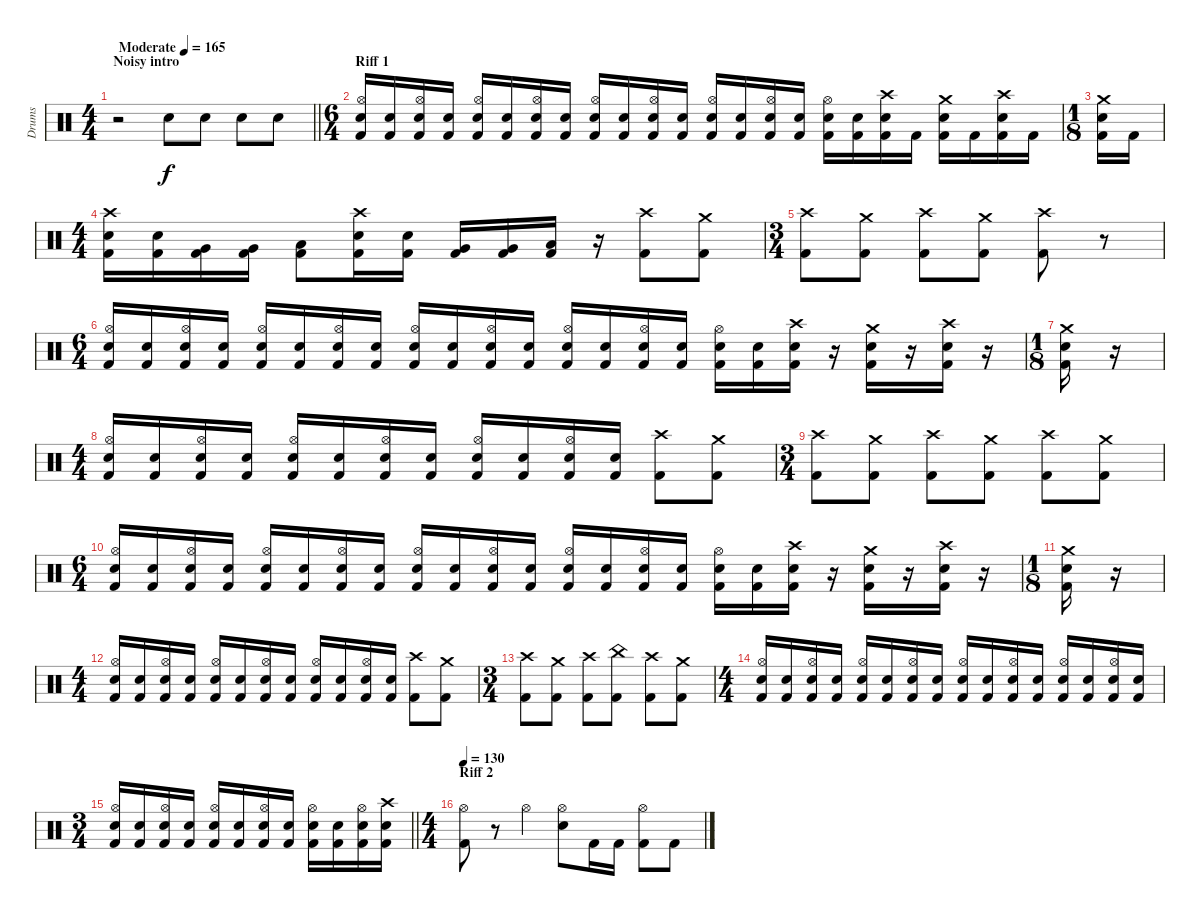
\track ("Drums" "Drums") {instrument percussion}
\staff {score}
\articulation defaults
\ts (4 4)
\section ("" "Noisy intro")
\tempo (165 "Moderate")
\clef neutral
\barLineRight lightlight
\ks c
r.2{dy f} "Snare (hit) 2".8 "Snare (hit) 2".8 "Snare (hit) 2".8 "Snare (hit) 2".8 |
\ts (6 4)
\section ("" "Riff 1")
("Hi-Hat (open)" "Snare (hit) 2" "Kick (hit) 2").16 ("Snare (hit) 2" "Kick (hit) 2").16 ("Hi-Hat (open)" "Snare (hit) 2" "Kick (hit) 2").16 ("Snare (hit) 2" "Kick (hit) 2").16 ("Hi-Hat (open)" "Snare (hit) 2" "Kick (hit) 2").16 ("Snare (hit) 2" "Kick (hit) 2").16 ("Hi-Hat (open)" "Snare (hit) 2" "Kick (hit) 2").16 ("Snare (hit) 2" "Kick (hit) 2").16 ("Hi-Hat (open)" "Snare (hit) 2" "Kick (hit) 2").16 ("Snare (hit) 2" "Kick (hit) 2").16 ("Hi-Hat (open)" "Snare (hit) 2" "Kick (hit) 2").16 ("Snare (hit) 2" "Kick (hit) 2").16 ("Hi-Hat (open)" "Snare (hit) 2" "Kick (hit) 2").16 ("Snare (hit) 2" "Kick (hit) 2").16 ("Hi-Hat (open)" "Snare (hit) 2" "Kick (hit) 2").16 ("Snare (hit) 2" "Kick (hit) 2").16 ("Hi-Hat (open)" "Snare (hit) 2" "Kick (hit) 2").16 ("Snare (hit) 2" "Kick (hit) 2").16 ("Crash high (hit)" "Snare (hit) 2" "Kick (hit) 2").16 "Kick (hit) 2".16 ("Crash medium (hit)" "Snare (hit) 2" "Kick (hit) 2").16 "Kick (hit) 2".16 ("Crash high (hit)" "Snare (hit) 2" "Kick (hit) 2").16 "Kick (hit) 2".16 |
\ts (1 8)
("Crash medium (hit)" "Snare (hit) 2" "Kick (hit) 2").16 "Kick (hit) 2".16 |
\ts (4 4)
("Crash high (hit)" "Snare (hit) 2" "Kick (hit) 2").16 ("Snare (hit) 2" "Kick (hit) 2").16 ("Very Low Tom (hit)" "Kick (hit) 2").16 ("Very Low Tom (hit)" "Kick (hit) 2").16 ("Low Floor Tom (hit)" "Kick (hit) 2").8 ("Crash high (hit)" "Snare (hit) 2" "Kick (hit) 2").16 ("Snare (hit) 2" "Kick (hit) 2").16 ("Very Low Tom (hit)" "Kick (hit) 2").16 ("Very Low Tom (hit)" "Kick (hit) 2").16 ("Low Floor Tom (hit)" "Kick (hit) 2").16 r.16 ("Crash high (hit)" "Kick (hit) 2").8 ("Crash medium (hit)" "Kick (hit) 2").8 |
\ts (3 4)
("Crash high (hit)" "Kick (hit) 2").8 ("Crash medium (hit)" "Kick (hit) 2").8 ("Crash high (hit)" "Kick (hit) 2").8 ("Crash medium (hit)" "Kick (hit) 2").8 ("Crash high (hit)" "Kick (hit) 2").8 r.8 |
\ts (6 4)
("Hi-Hat (open)" "Snare (hit) 2" "Kick (hit) 2").16 ("Snare (hit) 2" "Kick (hit) 2").16 ("Hi-Hat (open)" "Snare (hit) 2" "Kick (hit) 2").16 ("Snare (hit) 2" "Kick (hit) 2").16 ("Hi-Hat (open)" "Snare (hit) 2" "Kick (hit) 2").16 ("Snare (hit) 2" "Kick (hit) 2").16 ("Hi-Hat (open)" "Snare (hit) 2" "Kick (hit) 2").16 ("Snare (hit) 2" "Kick (hit) 2").16 ("Hi-Hat (open)" "Snare (hit) 2" "Kick (hit) 2").16 ("Snare (hit) 2" "Kick (hit) 2").16 ("Hi-Hat (open)" "Snare (hit) 2" "Kick (hit) 2").16 ("Snare (hit) 2" "Kick (hit) 2").16 ("Hi-Hat (open)" "Snare (hit) 2" "Kick (hit) 2").16 ("Snare (hit) 2" "Kick (hit) 2").16 ("Hi-Hat (open)" "Snare (hit) 2" "Kick (hit) 2").16 ("Snare (hit) 2" "Kick (hit) 2").16 ("Hi-Hat (open)" "Snare (hit) 2" "Kick (hit) 2").16 ("Snare (hit) 2" "Kick (hit) 2").16 ("Crash high (hit)" "Snare (hit) 2" "Kick (hit) 2").16 r.16 ("Crash medium (hit)" "Snare (hit) 2" "Kick (hit) 2").16 r.16 ("Crash high (hit)" "Snare (hit) 2" "Kick (hit) 2").16 r.16 |
\ts (1 8)
("Crash medium (hit)" "Snare (hit) 2" "Kick (hit) 2").16 r.16 |
\ts (4 4)
("Hi-Hat (open)" "Snare (hit) 2" "Kick (hit) 2").16 ("Snare (hit) 2" "Kick (hit) 2").16 ("Hi-Hat (open)" "Snare (hit) 2" "Kick (hit) 2").16 ("Snare (hit) 2" "Kick (hit) 2").16 ("Hi-Hat (open)" "Snare (hit) 2" "Kick (hit) 2").16 ("Snare (hit) 2" "Kick (hit) 2").16 ("Hi-Hat (open)" "Snare (hit) 2" "Kick (hit) 2").16 ("Snare (hit) 2" "Kick (hit) 2").16 ("Hi-Hat (open)" "Snare (hit) 2" "Kick (hit) 2").16 ("Snare (hit) 2" "Kick (hit) 2").16 ("Hi-Hat (open)" "Snare (hit) 2" "Kick (hit) 2").16 ("Snare (hit) 2" "Kick (hit) 2").16 ("Crash high (hit)" "Kick (hit) 2").8 ("Crash medium (hit)" "Kick (hit) 2").8 |
\ts (3 4)
("Crash high (hit)" "Kick (hit) 2").8 ("Crash medium (hit)" "Kick (hit) 2").8 ("Crash high (hit)" "Kick (hit) 2").8 ("Crash medium (hit)" "Kick (hit) 2").8 ("Crash high (hit)" "Kick (hit) 2").8 ("Crash medium (hit)" "Kick (hit) 2").8 |
\ts (6 4)
("Hi-Hat (open)" "Snare (hit) 2" "Kick (hit) 2").16 ("Snare (hit) 2" "Kick (hit) 2").16 ("Hi-Hat (open)" "Snare (hit) 2" "Kick (hit) 2").16 ("Snare (hit) 2" "Kick (hit) 2").16 ("Hi-Hat (open)" "Snare (hit) 2" "Kick (hit) 2").16 ("Snare (hit) 2" "Kick (hit) 2").16 ("Hi-Hat (open)" "Snare (hit) 2" "Kick (hit) 2").16 ("Snare (hit) 2" "Kick (hit) 2").16 ("Hi-Hat (open)" "Snare (hit) 2" "Kick (hit) 2").16 ("Snare (hit) 2" "Kick (hit) 2").16 ("Hi-Hat (open)" "Snare (hit) 2" "Kick (hit) 2").16 ("Snare (hit) 2" "Kick (hit) 2").16 ("Hi-Hat (open)" "Snare (hit) 2" "Kick (hit) 2").16 ("Snare (hit) 2" "Kick (hit) 2").16 ("Hi-Hat (open)" "Snare (hit) 2" "Kick (hit) 2").16 ("Snare (hit) 2" "Kick (hit) 2").16 ("Hi-Hat (open)" "Snare (hit) 2" "Kick (hit) 2").16 ("Snare (hit) 2" "Kick (hit) 2").16 ("Crash high (hit)" "Snare (hit) 2" "Kick (hit) 2").16 r.16 ("Crash medium (hit)" "Snare (hit) 2" "Kick (hit) 2").16 r.16 ("Crash high (hit)" "Snare (hit) 2" "Kick (hit) 2").16 r.16 |
\ts (1 8)
("Crash medium (hit)" "Snare (hit) 2" "Kick (hit) 2").16 r.16 |
\ts (4 4)
("Hi-Hat (open)" "Snare (hit) 2" "Kick (hit) 2").16 ("Snare (hit) 2" "Kick (hit) 2").16 ("Hi-Hat (open)" "Snare (hit) 2" "Kick (hit) 2").16 ("Snare (hit) 2" "Kick (hit) 2").16 ("Hi-Hat (open)" "Snare (hit) 2" "Kick (hit) 2").16 ("Snare (hit) 2" "Kick (hit) 2").16 ("Hi-Hat (open)" "Snare (hit) 2" "Kick (hit) 2").16 ("Snare (hit) 2" "Kick (hit) 2").16 ("Hi-Hat (open)" "Snare (hit) 2" "Kick (hit) 2").16 ("Snare (hit) 2" "Kick (hit) 2").16 ("Hi-Hat (open)" "Snare (hit) 2" "Kick (hit) 2").16 ("Snare (hit) 2" "Kick (hit) 2").16 ("Crash high (hit)" "Kick (hit) 2").8 ("Crash medium (hit)" "Kick (hit) 2").8 |
\ts (3 4)
("Crash high (hit)" "Kick (hit) 2").8 ("Crash medium (hit)" "Kick (hit) 2").8 ("Crash high (hit)" "Kick (hit) 2").8 ("China (hit)" "Kick (hit) 2").8 ("Crash high (hit)" "Kick (hit) 2").8 ("Crash medium (hit)" "Kick (hit) 2").8 |
\ts (4 4)
("Hi-Hat (open)" "Snare (hit) 2" "Kick (hit) 2").16 ("Snare (hit) 2" "Kick (hit) 2").16 ("Hi-Hat (open)" "Snare (hit) 2" "Kick (hit) 2").16 ("Snare (hit) 2" "Kick (hit) 2").16 ("Hi-Hat (open)" "Snare (hit) 2" "Kick (hit) 2").16 ("Snare (hit) 2" "Kick (hit) 2").16 ("Hi-Hat (open)" "Snare (hit) 2" "Kick (hit) 2").16 ("Snare (hit) 2" "Kick (hit) 2").16 ("Hi-Hat (open)" "Snare (hit) 2" "Kick (hit) 2").16 ("Snare (hit) 2" "Kick (hit) 2").16 ("Hi-Hat (open)" "Snare (hit) 2" "Kick (hit) 2").16 ("Snare (hit) 2" "Kick (hit) 2").16 ("Hi-Hat (open)" "Snare (hit) 2" "Kick (hit) 2").16 ("Snare (hit) 2" "Kick (hit) 2").16 ("Hi-Hat (open)" "Snare (hit) 2" "Kick (hit) 2").16 ("Snare (hit) 2" "Kick (hit) 2").16 |
\ts (3 4)
\barLineRight lightlight
("Hi-Hat (open)" "Snare (hit) 2" "Kick (hit) 2").16 ("Snare (hit) 2" "Kick (hit) 2").16 ("Hi-Hat (open)" "Snare (hit) 2" "Kick (hit) 2").16 ("Snare (hit) 2" "Kick (hit) 2").16 ("Hi-Hat (open)" "Snare (hit) 2" "Kick (hit) 2").16 ("Snare (hit) 2" "Kick (hit) 2").16 ("Hi-Hat (open)" "Snare (hit) 2" "Kick (hit) 2").16 ("Snare (hit) 2" "Kick (hit) 2").16 ("Hi-Hat (open)" "Snare (hit) 2" "Kick (hit) 2").16 ("Snare (hit) 2" "Kick (hit) 2").16 ("Hi-Hat (open)" "Snare (hit) 2" "Kick (hit) 2").16 ("Crash high (hit)" "Snare (hit) 2" "Kick (hit) 2").16 |
\ts (4 4)
\section ("" "Riff 2")
\tempo 130
("Hi-Hat (open)" "Kick (hit) 2").8 r.8 "Hi-Hat (open)".4 ("Hi-Hat (open)" "Snare (hit) 2").8 "Kick (hit) 2".16 "Kick (hit) 2".16 ("Hi-Hat (open)" "Kick (hit) 2").8 "Kick (hit) 2".8
